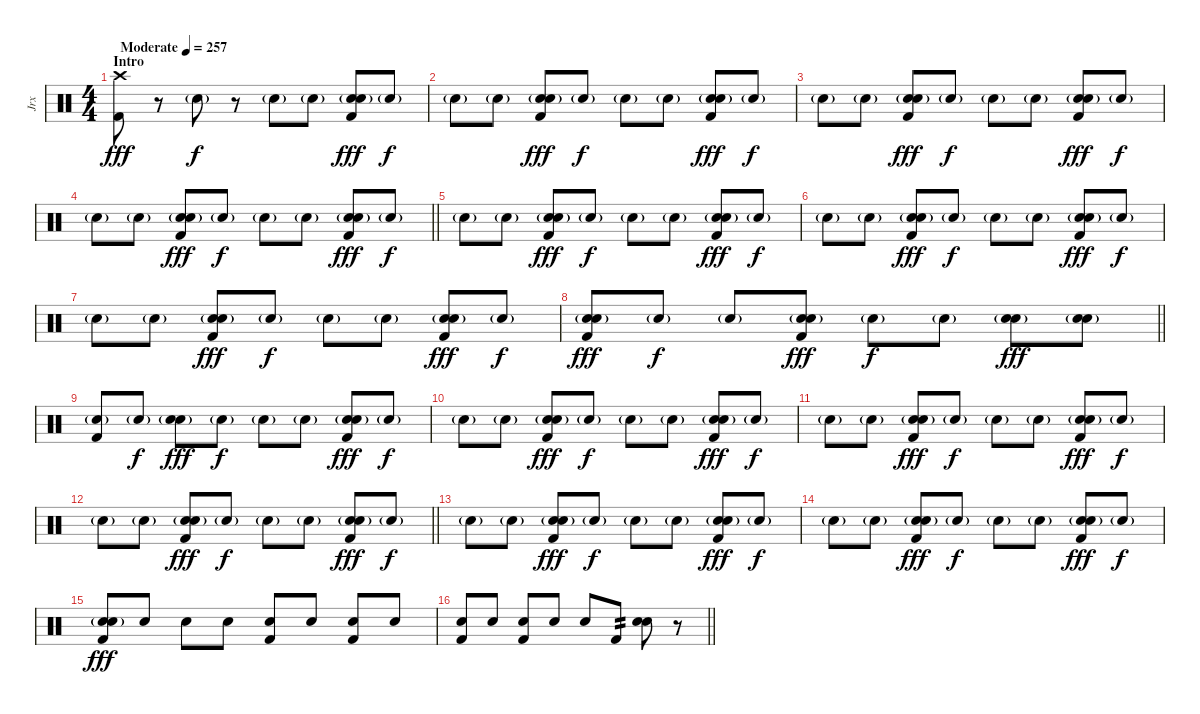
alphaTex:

\track ("Jrx" "Jrx") {instrument percussion}
\staff {score}
\articulation defaults
\ts (4 4)
\section ("" "Intro")
\tempo (257 "Moderate")
\clef neutral
\ks c
("Kick (hit) 2" "Crash high (hit)").8{dy fff} r.8 "Electric Snare (hit)"{g}.8{dy f} r.8 "Electric Snare (hit)"{g}.8 "Electric Snare (hit)"{g}.8 ("Snare (hit) 2" "Kick (hit) 2" "Electric Snare (hit)"{g}).8{dy fff} "Electric Snare (hit)"{g}.8{dy f} |
"Electric Snare (hit)"{g}.8 "Electric Snare (hit)"{g}.8 ("Snare (hit) 2" "Kick (hit) 2" "Electric Snare (hit)"{g}).8{dy fff} "Electric Snare (hit)"{g}.8{dy f} "Electric Snare (hit)"{g}.8 "Electric Snare (hit)"{g}.8 ("Snare (hit) 2" "Kick (hit) 2" "Electric Snare (hit)"{g}).8{dy fff} "Electric Snare (hit)"{g}.8{dy f} |
"Electric Snare (hit)"{g}.8 "Electric Snare (hit)"{g}.8 ("Snare (hit) 2" "Kick (hit) 2" "Electric Snare (hit)"{g}).8{dy fff} "Electric Snare (hit)"{g}.8{dy f} "Electric Snare (hit)"{g}.8 "Electric Snare (hit)"{g}.8 ("Snare (hit) 2" "Kick (hit) 2" "Electric Snare (hit)"{g}).8{dy fff} "Electric Snare (hit)"{g}.8{dy f} |
\barLineRight lightlight "Electric Snare (hit)"{g}.8 "Electric Snare (hit)"{g}.8
("Snare (hit) 2" "Kick (hit) 2" "Electric Snare (hit)"{g}).8{dy fff} "Electric Snare (hit)"{g}.8{dy f} "Electric Snare (hit)"{g}.8 "Electric Snare (hit)"{g}.8 ("Snare (hit) 2" "Kick (hit) 2" "Electric Snare (hit)"{g}).8{dy fff} "Electric Snare (hit)"{g}.8{dy f} |
"Electric Snare (hit)"{g}.8 "Electric Snare (hit)"{g}.8 ("Snare (hit) 2" "Kick (hit) 2" "Electric Snare (hit)"{g}).8{dy fff} "Electric Snare (hit)"{g}.8{dy f} "Electric Snare (hit)"{g}.8 "Electric Snare (hit)"{g}.8 ("Snare (hit) 2" "Kick (hit) 2" "Electric Snare (hit)"{g}).8{dy fff} "Electric Snare (hit)"{g}.8{dy f} |
"Electric Snare (hit)"{g}.8 "Electric Snare (hit)"{g}.8 ("Snare (hit) 2" "Kick (hit) 2" "Electric Snare (hit)"{g}).8{dy fff} "Electric Snare (hit)"{g}.8{dy f} "Electric Snare (hit)"{g}.8 "Electric Snare (hit)"{g}.8 ("Snare (hit) 2" "Kick (hit) 2" "Electric Snare (hit)"{g}).8{dy fff} "Electric Snare (hit)"{g}.8{dy f} |
"Electric Snare (hit)"{g}.8 "Electric Snare (hit)"{g}.8 ("Snare (hit) 2" "Kick (hit) 2" "Electric Snare (hit)"{g}).8{dy fff} "Electric Snare (hit)"{g}.8{dy f} "Electric Snare (hit)"{g}.8 "Electric Snare (hit)"{g}.8 ("Snare (hit) 2" "Kick (hit) 2" "Electric Snare (hit)"{g}).8{dy fff} "Electric Snare (hit)"{g}.8{dy f} |
\barLineRight lightlight
("Snare (hit) 2" "Kick (hit) 2" "Electric Snare (hit)"{g}).8{dy fff} "Electric Snare (hit)"{g}.8{dy f} "Electric Snare (hit)"{g}.8 ("Snare (hit) 2" "Kick (hit) 2" "Electric Snare (hit)"{g}).8{dy fff} "Electric Snare (hit)"{g}.8{dy f} "Electric Snare (hit)"{g}.8 ("Snare (hit) 2" "Electric Snare (hit)"{g}).8{dy fff} ("Snare (hit) 2" "Electric Snare (hit)"{g}).8 |
("Kick (hit) 2" "Electric Snare (hit)"{g}).8 "Electric Snare (hit)"{g}.8{dy f} ("Snare (hit) 2" "Electric Snare (hit)"{g}).8{dy fff} "Electric Snare (hit)"{g}.8{dy f} "Electric Snare (hit)"{g}.8 "Electric Snare (hit)"{g}.8 ("Snare (hit) 2" "Kick (hit) 2" "Electric Snare (hit)"{g}).8{dy fff} "Electric Snare (hit)"{g}.8{dy f} |
"Electric Snare (hit)"{g}.8 "Electric Snare (hit)"{g}.8 ("Snare (hit) 2" "Kick (hit) 2" "Electric Snare (hit)"{g}).8{dy fff} "Electric Snare (hit)"{g}.8{dy f} "Electric Snare (hit)"{g}.8 "Electric Snare (hit)"{g}.8 ("Snare (hit) 2" "Kick (hit) 2" "Electric Snare (hit)"{g}).8{dy fff} "Electric Snare (hit)"{g}.8{dy f} |
"Electric Snare (hit)"{g}.8 "Electric Snare (hit)"{g}.8 ("Snare (hit) 2" "Kick (hit) 2" "Electric Snare (hit)"{g}).8{dy fff} "Electric Snare (hit)"{g}.8{dy f} "Electric Snare (hit)"{g}.8 "Electric Snare (hit)"{g}.8 ("Snare (hit) 2" "Kick (hit) 2" "Electric Snare (hit)"{g}).8{dy fff} "Electric Snare (hit)"{g}.8{dy f} |
\barLineRight lightlight "Electric Snare (hit)"{g}.8 "Electric Snare (hit)"{g}.8
("Snare (hit) 2" "Kick (hit) 2" "Electric Snare (hit)"{g}).8{dy fff} "Electric Snare (hit)"{g}.8{dy f} "Electric Snare (hit)"{g}.8 "Electric Snare (hit)"{g}.8 ("Snare (hit) 2" "Kick (hit) 2" "Electric Snare (hit)"{g}).8{dy fff} "Electric Snare (hit)"{g}.8{dy f} |
"Electric Snare (hit)"{g}.8 "Electric Snare (hit)"{g}.8 ("Snare (hit) 2" "Kick (hit) 2" "Electric Snare (hit)"{g}).8{dy fff} "Electric Snare (hit)"{g}.8{dy f} "Electric Snare (hit)"{g}.8 "Electric Snare (hit)"{g}.8 ("Snare (hit) 2" "Kick (hit) 2" "Electric Snare (hit)"{g}).8{dy fff} "Electric Snare (hit)"{g}.8{dy f} |
"Electric Snare (hit)"{g}.8 "Electric Snare (hit)"{g}.8 ("Snare (hit) 2" "Kick (hit) 2" "Electric Snare (hit)"{g}).8{dy fff} "Electric Snare (hit)"{g}.8{dy f} "Electric Snare (hit)"{g}.8 "Electric Snare (hit)"{g}.8 ("Snare (hit) 2" "Kick (hit) 2" "Electric Snare (hit)"{g}).8{dy fff} "Electric Snare (hit)"{g}.8{dy f} |
("Snare (hit) 2" "Kick (hit) 2" "Electric Snare (hit)"{g}).8{dy fff} "Snare (hit) 2".8 "Snare (hit) 2".8 "Snare (hit) 2".8 ("Snare (hit) 2" "Kick (hit) 2").8 "Snare (hit) 2".8 ("Snare (hit) 2" "Kick (hit) 2").8 "Snare (hit) 2".8 |
\barLineRight lightlight
("Snare (hit) 2" "Kick (hit) 2").8 "Snare (hit) 2".8 ("Snare (hit) 2" "Kick (hit) 2").8 "Snare (hit) 2".8 "Snare (hit) 2".8 "Kick (hit) 2".8{tp 2} ("Snare (hit) 2" "Snare (hit) 2").8{bu 240} r.8
